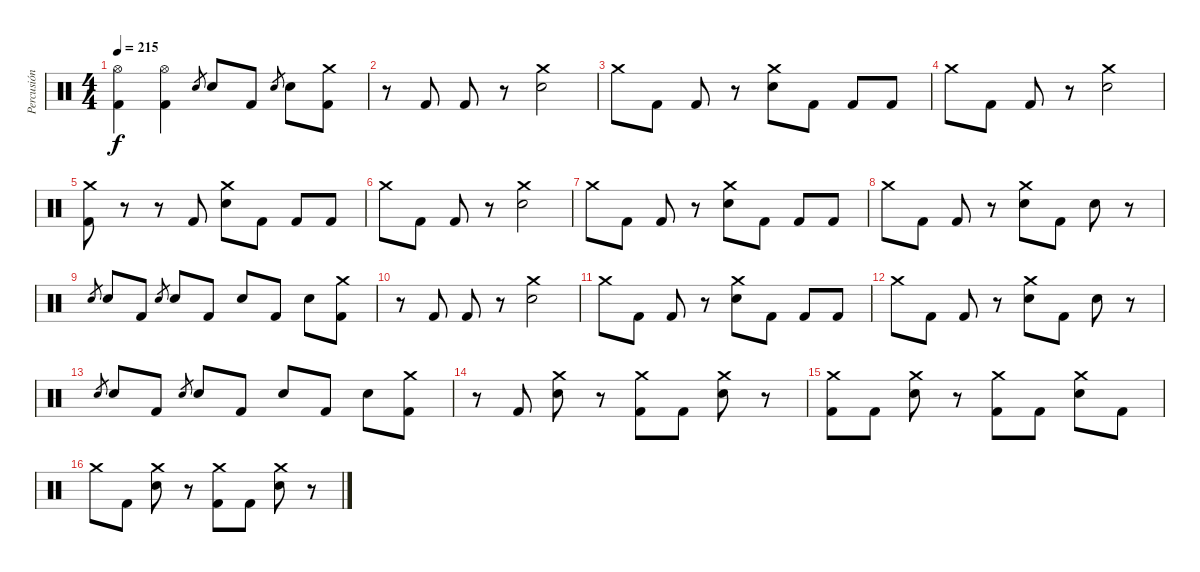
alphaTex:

\track ("Percusión" "Percusión") {instrument percussion}
\staff {score}
\articulation defaults
\ts (4 4)
\tempo 215
\clef neutral
\ks c
("Hi-Hat (open)" "Kick (hit) 2").4{dy f} ("Hi-Hat (open)" "Kick (hit) 2").4 "Electric Snare (hit)".8{gr} "Electric Snare (hit)".8 "Kick (hit) 2".8 "Electric Snare (hit)".8{gr} "Electric Snare (hit)".8 ("Crash medium (hit)" "Kick (hit) 2").8 |
r.8 "Kick (hit) 2".8 "Kick (hit) 2".8 r.8 ("Crash medium (hit)" "Electric Snare (hit)").2 |
"Crash medium (hit)".8 "Kick (hit) 2".8 "Kick (hit) 2".8 r.8 ("Crash medium (hit)" "Electric Snare (hit)").8 "Kick (hit) 2".8 "Kick (hit) 2".8 "Kick (hit) 2".8 |
"Crash medium (hit)".8 "Kick (hit) 2".8 "Kick (hit) 2".8 r.8 ("Crash medium (hit)" "Electric Snare (hit)").2 |
("Crash medium (hit)" "Kick (hit) 2").8 r.8 r.8 "Kick (hit) 2".8 ("Crash medium (hit)" "Electric Snare (hit)").8 "Kick (hit) 2".8 "Kick (hit) 2".8 "Kick (hit) 2".8 |
"Crash medium (hit)".8 "Kick (hit) 2".8 "Kick (hit) 2".8 r.8 ("Crash medium (hit)" "Electric Snare (hit)").2 |
"Crash medium (hit)".8 "Kick (hit) 2".8 "Kick (hit) 2".8 r.8 ("Crash medium (hit)" "Electric Snare (hit)").8 "Kick (hit) 2".8 "Kick (hit) 2".8 "Kick (hit) 2".8 |
"Crash medium (hit)".8 "Kick (hit) 2".8 "Kick (hit) 2".8 r.8 ("Crash medium (hit)" "Electric Snare (hit)").8 "Kick (hit) 2".8 "Electric Snare (hit)".8 r.8 |
"Electric Snare (hit)".8{gr} "Electric Snare (hit)".8 "Kick (hit) 2".8 "Electric Snare (hit)".8{gr} "Electric Snare (hit)".8 "Kick (hit) 2".8 "Electric Snare (hit)".8 "Kick (hit) 2".8 "Electric Snare (hit)".8 ("Crash medium (hit)" "Kick (hit) 2").8 |
r.8 "Kick (hit) 2".8 "Kick (hit) 2".8 r.8 ("Crash medium (hit)" "Electric Snare (hit)").2 |
"Crash medium (hit)".8 "Kick (hit) 2".8 "Kick (hit) 2".8 r.8 ("Crash medium (hit)" "Electric Snare (hit)").8 "Kick (hit) 2".8 "Kick (hit) 2".8 "Kick (hit) 2".8 |
"Crash medium (hit)".8 "Kick (hit) 2".8 "Kick (hit) 2".8 r.8 ("Crash medium (hit)" "Electric Snare (hit)").8 "Kick (hit) 2".8 "Electric Snare (hit)".8 r.8 |
"Electric Snare (hit)".8{gr} "Electric Snare (hit)".8 "Kick (hit) 2".8 "Electric Snare (hit)".8{gr} "Electric Snare (hit)".8 "Kick (hit) 2".8 "Electric Snare (hit)".8 "Kick (hit) 2".8 "Electric Snare (hit)".8 ("Crash medium (hit)" "Kick (hit) 2").8 |
r.8 "Kick (hit) 2".8 ("Crash medium (hit)" "Electric Snare (hit)").8 r.8 ("Crash medium (hit)" "Kick (hit) 2").8 "Kick (hit) 2".8 ("Crash medium (hit)" "Electric Snare (hit)").8 r.8 |
("Crash medium (hit)" "Kick (hit) 2").8 "Kick (hit) 2".8 ("Crash medium (hit)" "Electric Snare (hit)").8 r.8 ("Crash medium (hit)" "Kick (hit) 2").8 "Kick (hit) 2".8 ("Crash medium (hit)" "Electric Snare (hit)").8 "Kick (hit) 2".8 |
"Crash medium (hit)".8 "Kick (hit) 2".8 ("Crash medium (hit)" "Electric Snare (hit)").8 r.8 ("Crash medium (hit)" "Kick (hit) 2").8 "Kick (hit) 2".8 ("Crash medium (hit)" "Electric Snare (hit)").8 r.8
